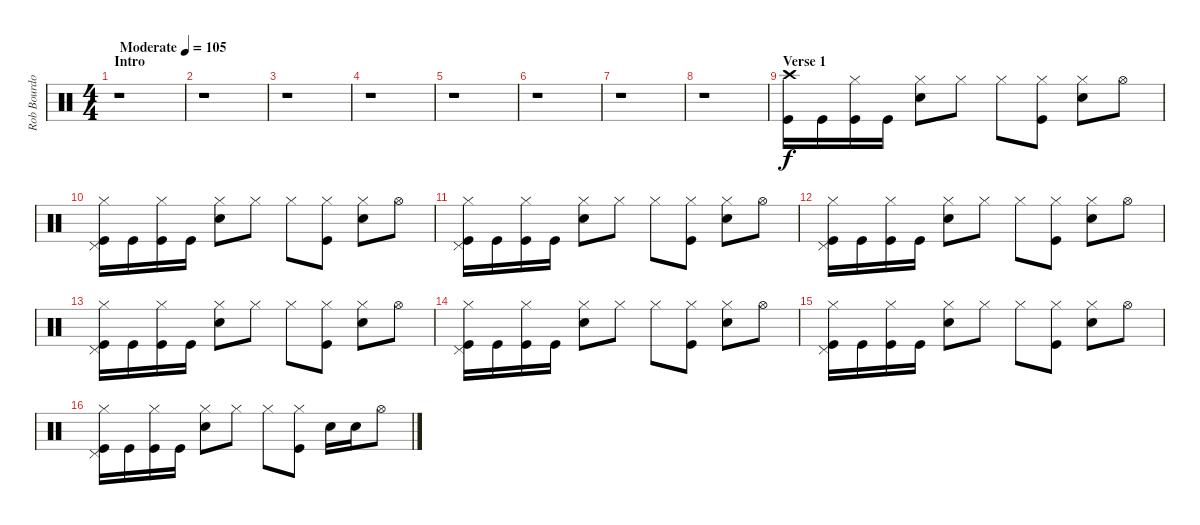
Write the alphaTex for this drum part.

\track ("Rob Bourdon - Drums" "Rob Bourdo") {instrument percussion}
\staff {score}
\articulation defaults
\ts (4 4)
\section ("" "Intro")
\tempo (105 "Moderate")
\clef neutral
\ks c
r.1{dy f} |
r.1 |
r.1 |
r.1 |
r.1 |
r.1 |
r.1 |
r.1 |
\section ("" "Verse 1")
("Crash high (hit)" "Kick (hit)").16 "Kick (hit)".16 ("Hi-Hat (closed)" "Kick (hit)").16 "Kick (hit)".16 ("Hi-Hat (closed)" "Electric Snare (hit)").8 "Hi-Hat (closed)".8 "Hi-Hat (closed)".8 ("Hi-Hat (closed)" "Kick (hit)").8 ("Hi-Hat (closed)" "Electric Snare (hit)").8 "Hi-Hat (open)".8 |
("Hi-Hat (closed)" "Pedal Hi-Hat (hit)" "Kick (hit)").16 "Kick (hit)".16 ("Hi-Hat (closed)" "Kick (hit)").16 "Kick (hit)".16 ("Hi-Hat (closed)" "Electric Snare (hit)").8 "Hi-Hat (closed)".8 "Hi-Hat (closed)".8 ("Hi-Hat (closed)" "Kick (hit)").8 ("Hi-Hat (closed)" "Electric Snare (hit)").8 "Hi-Hat (open)".8 |
("Hi-Hat (closed)" "Pedal Hi-Hat (hit)" "Kick (hit)").16 "Kick (hit)".16 ("Hi-Hat (closed)" "Kick (hit)").16 "Kick (hit)".16 ("Hi-Hat (closed)" "Electric Snare (hit)").8 "Hi-Hat (closed)".8 "Hi-Hat (closed)".8 ("Hi-Hat (closed)" "Kick (hit)").8 ("Hi-Hat (closed)" "Electric Snare (hit)").8 "Hi-Hat (open)".8 |
("Hi-Hat (closed)" "Pedal Hi-Hat (hit)" "Kick (hit)").16 "Kick (hit)".16 ("Hi-Hat (closed)" "Kick (hit)").16 "Kick (hit)".16 ("Hi-Hat (closed)" "Electric Snare (hit)").8 "Hi-Hat (closed)".8 "Hi-Hat (closed)".8 ("Hi-Hat (closed)" "Kick (hit)").8 ("Hi-Hat (closed)" "Electric Snare (hit)").8 "Hi-Hat (open)".8 |
("Hi-Hat (closed)" "Pedal Hi-Hat (hit)" "Kick (hit)").16 "Kick (hit)".16 ("Hi-Hat (closed)" "Kick (hit)").16 "Kick (hit)".16 ("Hi-Hat (closed)" "Electric Snare (hit)").8 "Hi-Hat (closed)".8 "Hi-Hat (closed)".8 ("Hi-Hat (closed)" "Kick (hit)").8 ("Hi-Hat (closed)" "Electric Snare (hit)").8 "Hi-Hat (open)".8 |
("Hi-Hat (closed)" "Pedal Hi-Hat (hit)" "Kick (hit)").16 "Kick (hit)".16 ("Hi-Hat (closed)" "Kick (hit)").16 "Kick (hit)".16 ("Hi-Hat (closed)" "Electric Snare (hit)").8 "Hi-Hat (closed)".8 "Hi-Hat (closed)".8 ("Hi-Hat (closed)" "Kick (hit)").8 ("Hi-Hat (closed)" "Electric Snare (hit)").8 "Hi-Hat (open)".8 |
("Hi-Hat (closed)" "Pedal Hi-Hat (hit)" "Kick (hit)").16 "Kick (hit)".16 ("Hi-Hat (closed)" "Kick (hit)").16 "Kick (hit)".16 ("Hi-Hat (closed)" "Electric Snare (hit)").8 "Hi-Hat (closed)".8 "Hi-Hat (closed)".8 ("Hi-Hat (closed)" "Kick (hit)").8 ("Hi-Hat (closed)" "Electric Snare (hit)").8 "Hi-Hat (open)".8 |
("Hi-Hat (closed)" "Pedal Hi-Hat (hit)" "Kick (hit)").16 "Kick (hit)".16 ("Hi-Hat (closed)" "Kick (hit)").16 "Kick (hit)".16 ("Hi-Hat (closed)" "Electric Snare (hit)").8 "Hi-Hat (closed)".8 "Hi-Hat (closed)".8 ("Hi-Hat (closed)" "Kick (hit)").8 "Electric Snare (hit)".16 "Electric Snare (hit)".16 "Hi-Hat (open)".8
